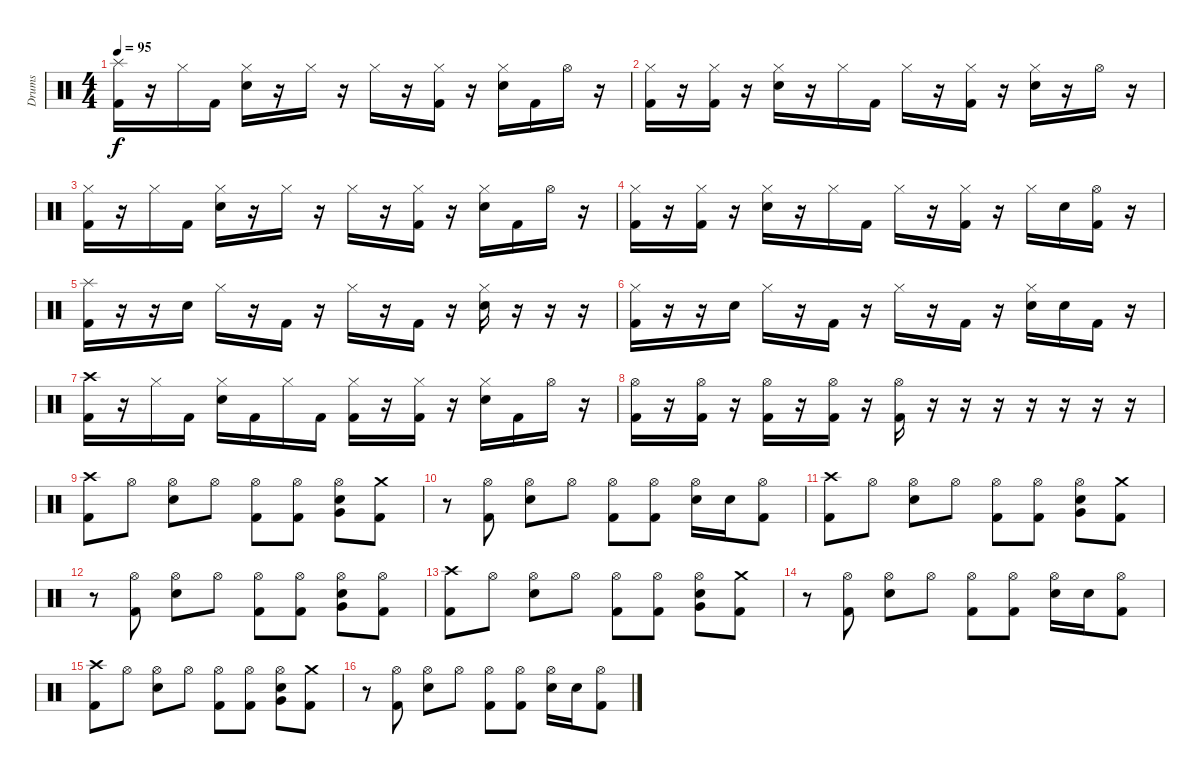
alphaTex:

\track ("Drums" "Drums") {instrument percussion}
\staff {score}
\articulation defaults
\ts (4 4)
\tempo 95
\clef neutral
\ks c
("Splash (hit)" "Kick (hit) 2").16{dy f} r.16 "Hi-Hat (closed)".16 "Kick (hit) 2".16 ("Hi-Hat (closed)" "Electric Snare (hit)").16 r.16 "Hi-Hat (closed)".16 r.16 "Hi-Hat (closed)".16 r.16 ("Hi-Hat (closed)" "Kick (hit) 2").16 r.16 ("Hi-Hat (closed)" "Electric Snare (hit)").16 "Kick (hit) 2".16 "Hi-Hat (open)".16 r.16 |
("Hi-Hat (closed)" "Kick (hit) 2").16 r.16 ("Hi-Hat (closed)" "Kick (hit) 2").16 r.16 ("Hi-Hat (closed)" "Electric Snare (hit)").16 r.16 "Hi-Hat (closed)".16 "Kick (hit) 2".16 "Hi-Hat (closed)".16 r.16 ("Hi-Hat (closed)" "Kick (hit) 2").16 r.16 ("Hi-Hat (closed)" "Electric Snare (hit)").16 r.16 "Hi-Hat (open)".16 r.16 |
("Hi-Hat (closed)" "Kick (hit) 2").16 r.16 "Hi-Hat (closed)".16 "Kick (hit) 2".16 ("Hi-Hat (closed)" "Electric Snare (hit)").16 r.16 "Hi-Hat (closed)".16 r.16 "Hi-Hat (closed)".16 r.16 ("Hi-Hat (closed)" "Kick (hit) 2").16 r.16 ("Hi-Hat (closed)" "Electric Snare (hit)").16 "Kick (hit) 2".16 "Hi-Hat (open)".16 r.16 |
("Hi-Hat (closed)" "Kick (hit) 2").16 r.16 ("Hi-Hat (closed)" "Kick (hit) 2").16 r.16 ("Hi-Hat (closed)" "Electric Snare (hit)").16 r.16 "Hi-Hat (closed)".16 "Kick (hit) 2".16 "Hi-Hat (closed)".16 r.16 ("Hi-Hat (closed)" "Kick (hit) 2").16 r.16 "Hi-Hat (closed)".16 "Electric Snare (hit)".16 ("Hi-Hat (open)" "Kick (hit) 2").16 r.16 |
("Splash (hit)" "Kick (hit) 2").16 r.16 r.16 "Electric Snare (hit)".16 "Hi-Hat (closed)".16 r.16 "Kick (hit) 2".16 r.16 "Hi-Hat (closed)".16 r.16 "Kick (hit) 2".16 r.16 ("Hi-Hat (closed)" "Electric Snare (hit)").16 r.16 r.16 r.16 |
("Hi-Hat (closed)" "Kick (hit) 2").16 r.16 r.16 "Electric Snare (hit)".16 "Hi-Hat (closed)".16 r.16 "Kick (hit) 2".16 r.16 "Hi-Hat (closed)".16 r.16 "Kick (hit) 2".16 r.16 ("Hi-Hat (closed)" "Electric Snare (hit)").16 "Electric Snare (hit)".16 "Kick (hit) 2".16 r.16 |
("Crash high (hit)" "Kick (hit) 2").16 r.16 "Hi-Hat (closed)".16 "Kick (hit) 2".16 ("Hi-Hat (closed)" "Electric Snare (hit)").16 "Kick (hit) 2".16 "Hi-Hat (closed)".16 "Kick (hit) 2".16 ("Hi-Hat (closed)" "Kick (hit) 2").16 r.16 ("Hi-Hat (closed)" "Kick (hit) 2").16 r.16 ("Hi-Hat (closed)" "Electric Snare (hit)").16 "Kick (hit) 2".16 "Hi-Hat (open)".16 r.16 |
("Hi-Hat (open)" "Kick (hit) 2").16 r.16 ("Hi-Hat (open)" "Kick (hit) 2").16 r.16 ("Hi-Hat (open)" "Kick (hit) 2").16 r.16 ("Hi-Hat (open)" "Kick (hit) 2").16 r.16 ("Hi-Hat (open)" "Kick (hit) 2").16 r.16 r.16 r.16 r.16 r.16 r.16 r.16 |
("Crash high (hit)" "Kick (hit) 2").8 "Hi-Hat (open)".8 ("Hi-Hat (open)" "Electric Snare (hit)").8 "Hi-Hat (open)".8 ("Hi-Hat (open)" "Kick (hit) 2").8 ("Hi-Hat (open)" "Kick (hit) 2").8 ("Hi-Hat (open)" "Electric Snare (hit)" "Very Low Tom (hit)").8 ("Crash medium (hit)" "Kick (hit) 2").8 |
r.8 ("Hi-Hat (open)" "Kick (hit) 2").8 ("Hi-Hat (open)" "Electric Snare (hit)").8 "Hi-Hat (open)".8 ("Hi-Hat (open)" "Kick (hit) 2").8 ("Hi-Hat (open)" "Kick (hit) 2").8 ("Hi-Hat (open)" "Electric Snare (hit)").16 "Electric Snare (hit)".16 ("Hi-Hat (open)" "Kick (hit) 2").8 |
("Crash high (hit)" "Kick (hit) 2").8 "Hi-Hat (open)".8 ("Hi-Hat (open)" "Electric Snare (hit)").8 "Hi-Hat (open)".8 ("Hi-Hat (open)" "Kick (hit) 2").8 ("Hi-Hat (open)" "Kick (hit) 2").8 ("Hi-Hat (open)" "Electric Snare (hit)" "Very Low Tom (hit)").8 ("Crash medium (hit)" "Kick (hit) 2").8 |
r.8 ("Hi-Hat (open)" "Kick (hit) 2").8 ("Hi-Hat (open)" "Electric Snare (hit)").8 "Hi-Hat (open)".8 ("Hi-Hat (open)" "Kick (hit) 2").8 ("Hi-Hat (open)" "Kick (hit) 2").8 ("Hi-Hat (open)" "Electric Snare (hit)" "Very Low Tom (hit)").8 ("Hi-Hat (open)" "Kick (hit) 2").8 |
("Crash high (hit)" "Kick (hit) 2").8 "Hi-Hat (open)".8 ("Hi-Hat (open)" "Electric Snare (hit)").8 "Hi-Hat (open)".8 ("Hi-Hat (open)" "Kick (hit) 2").8 ("Hi-Hat (open)" "Kick (hit) 2").8 ("Hi-Hat (open)" "Electric Snare (hit)" "Very Low Tom (hit)").8 ("Crash medium (hit)" "Kick (hit) 2").8 |
r.8 ("Hi-Hat (open)" "Kick (hit) 2").8 ("Hi-Hat (open)" "Electric Snare (hit)").8 "Hi-Hat (open)".8 ("Hi-Hat (open)" "Kick (hit) 2").8 ("Hi-Hat (open)" "Kick (hit) 2").8 ("Hi-Hat (open)" "Electric Snare (hit)").16 "Electric Snare (hit)".16 ("Hi-Hat (open)" "Kick (hit) 2").8 |
("Crash high (hit)" "Kick (hit) 2").8 "Hi-Hat (open)".8 ("Hi-Hat (open)" "Electric Snare (hit)").8 "Hi-Hat (open)".8 ("Hi-Hat (open)" "Kick (hit) 2").8 ("Hi-Hat (open)" "Kick (hit) 2").8 ("Hi-Hat (open)" "Electric Snare (hit)" "Very Low Tom (hit)").8 ("Crash medium (hit)" "Kick (hit) 2").8 |
r.8 ("Hi-Hat (open)" "Kick (hit) 2").8 ("Hi-Hat (open)" "Electric Snare (hit)").8 "Hi-Hat (open)".8 ("Hi-Hat (open)" "Kick (hit) 2").8 ("Hi-Hat (open)" "Kick (hit) 2").8 ("Hi-Hat (open)" "Electric Snare (hit)").16 "Electric Snare (hit)".16 ("Hi-Hat (open)" "Kick (hit) 2").8
